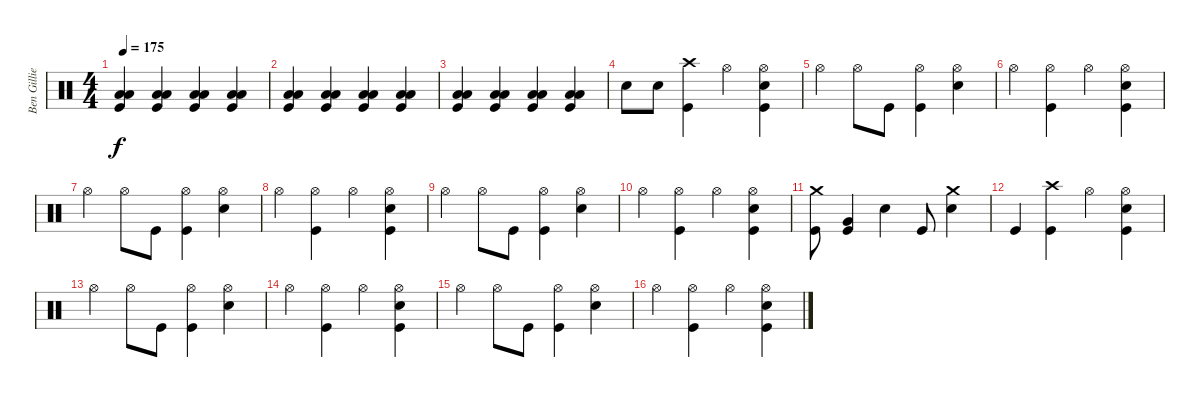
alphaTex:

\track ("Ben Gillies" "Ben Gillie") {instrument percussion}
\staff {score}
\articulation defaults
\ts (4 4)
\tempo 175
\clef neutral
\ks c
("Kick (hit)" "Low Tom (hit)" "Low Tom (hit)").4{dy f} ("Kick (hit)" "Low Tom (hit)" "Low Tom (hit)").4 ("Kick (hit)" "Low Tom (hit)" "Low Tom (hit)").4 ("Kick (hit)" "Low Tom (hit)" "Low Tom (hit)").4 |
("Kick (hit)" "Low Tom (hit)" "Low Tom (hit)").4 ("Kick (hit)" "Low Tom (hit)" "Low Tom (hit)").4 ("Kick (hit)" "Low Tom (hit)" "Low Tom (hit)").4 ("Kick (hit)" "Low Tom (hit)" "Low Tom (hit)").4 |
("Kick (hit)" "Low Tom (hit)" "Low Tom (hit)").4 ("Kick (hit)" "Low Tom (hit)" "Low Tom (hit)").4 ("Kick (hit)" "Low Tom (hit)" "Low Tom (hit)").4 ("Kick (hit)" "Low Tom (hit)" "Low Tom (hit)").4 |
"Snare (hit) 2".8 "Snare (hit) 2".8 ("Kick (hit)" "Crash high (hit)").4 "Hi-Hat (open)".4 ("Kick (hit)" "Snare (hit) 2" "Hi-Hat (open)").4 |
"Hi-Hat (open)".4 "Hi-Hat (open)".8 "Kick (hit)".8 ("Kick (hit)" "Hi-Hat (open)").4 ("Snare (hit) 2" "Hi-Hat (open)").4 |
"Hi-Hat (open)".4 ("Kick (hit)" "Hi-Hat (open)").4 "Hi-Hat (open)".4 ("Kick (hit)" "Snare (hit) 2" "Hi-Hat (open)").4 |
"Hi-Hat (open)".4 "Hi-Hat (open)".8 "Kick (hit)".8 ("Kick (hit)" "Hi-Hat (open)").4 ("Snare (hit) 2" "Hi-Hat (open)").4 |
"Hi-Hat (open)".4 ("Kick (hit)" "Hi-Hat (open)").4 "Hi-Hat (open)".4 ("Kick (hit)" "Snare (hit) 2" "Hi-Hat (open)").4 |
"Hi-Hat (open)".4 "Hi-Hat (open)".8 "Kick (hit)".8 ("Kick (hit)" "Hi-Hat (open)").4 ("Snare (hit) 2" "Hi-Hat (open)").4 |
"Hi-Hat (open)".4 ("Kick (hit)" "Hi-Hat (open)").4 "Hi-Hat (open)".4 ("Kick (hit)" "Snare (hit) 2" "Hi-Hat (open)").4 |
("Kick (hit)" "Crash medium (hit)").8 ("Kick (hit)" "Very Low Tom (hit)").4 "Snare (hit) 2".4 "Kick (hit)".8 ("Snare (hit) 2" "Crash medium (hit)").4 |
"Kick (hit)".4 ("Kick (hit)" "Crash high (hit)").4 "Hi-Hat (open)".4 ("Kick (hit)" "Snare (hit) 2" "Hi-Hat (open)").4 |
"Hi-Hat (open)".4 "Hi-Hat (open)".8 "Kick (hit)".8 ("Kick (hit)" "Hi-Hat (open)").4 ("Snare (hit) 2" "Hi-Hat (open)").4 |
"Hi-Hat (open)".4 ("Kick (hit)" "Hi-Hat (open)").4 "Hi-Hat (open)".4 ("Kick (hit)" "Snare (hit) 2" "Hi-Hat (open)").4 |
"Hi-Hat (open)".4 "Hi-Hat (open)".8 "Kick (hit)".8 ("Kick (hit)" "Hi-Hat (open)").4 ("Snare (hit) 2" "Hi-Hat (open)").4 |
"Hi-Hat (open)".4 ("Kick (hit)" "Hi-Hat (open)").4 "Hi-Hat (open)".4 ("Kick (hit)" "Snare (hit) 2" "Hi-Hat (open)").4
